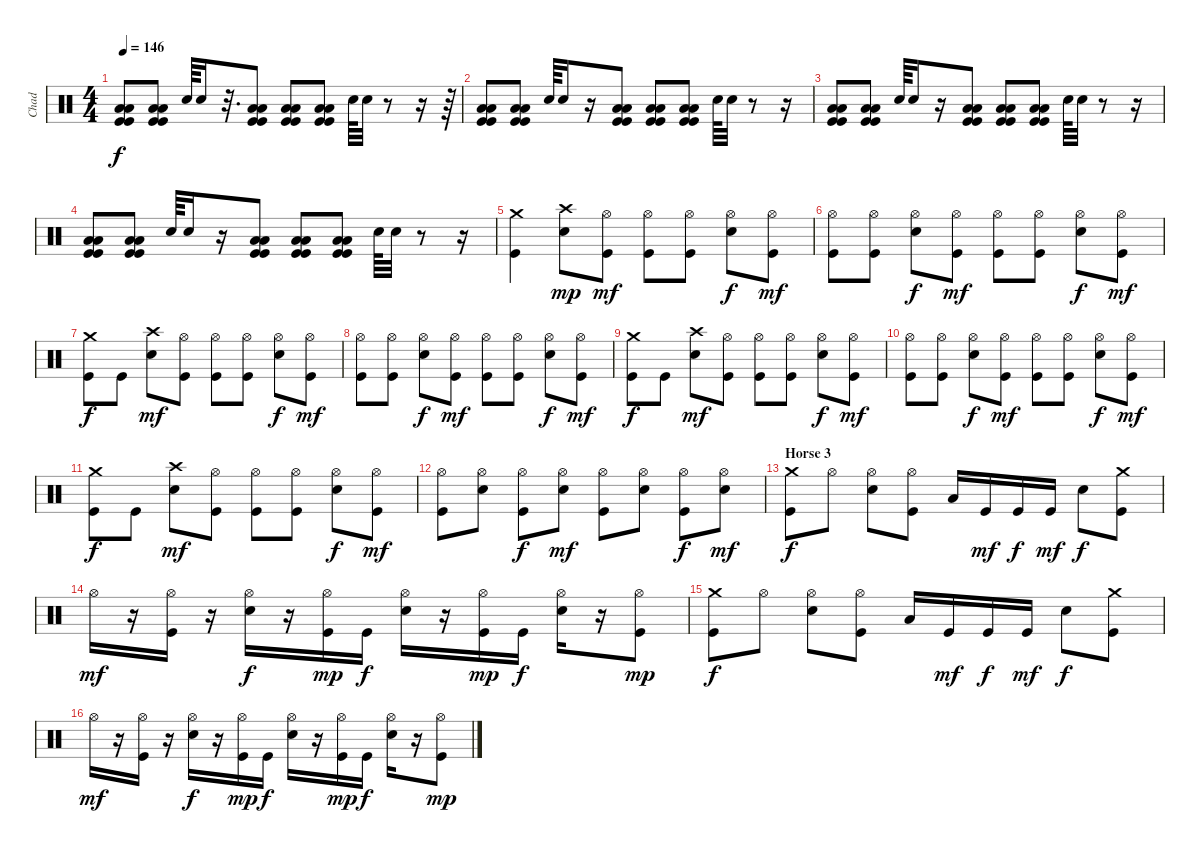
\track ("Chad" "Chad") {instrument percussion}
\staff {score}
\articulation defaults
\ts (4 4)
\tempo 146
\clef neutral
\ks c
("Low Tom (hit)" "Low Floor Tom (hit)" "Kick (hit)" "Kick (hit)").8{dy f} ("Low Tom (hit)" "Low Floor Tom (hit)" "Kick (hit)" "Kick (hit)").8 "Snare (hit) 2".64 "Snare (hit) 2".16 r.32{d} ("Low Tom (hit)" "Low Floor Tom (hit)" "Kick (hit)" "Kick (hit)").8 ("Low Tom (hit)" "Low Floor Tom (hit)" "Kick (hit)" "Kick (hit)").8 ("Low Tom (hit)" "Low Floor Tom (hit)" "Kick (hit)" "Kick (hit)").8 "Snare (hit) 2".64 "Snare (hit) 2".32 r.8 r.16 r.64 |
("Low Tom (hit)" "Low Floor Tom (hit)" "Kick (hit)" "Kick (hit)").8 ("Low Tom (hit)" "Low Floor Tom (hit)" "Kick (hit)" "Kick (hit)").8 "Snare (hit) 2".64 "Snare (hit) 2".16 r.16 ("Low Tom (hit)" "Low Floor Tom (hit)" "Kick (hit)" "Kick (hit)").8 ("Low Tom (hit)" "Low Floor Tom (hit)" "Kick (hit)" "Kick (hit)").8 ("Low Tom (hit)" "Low Floor Tom (hit)" "Kick (hit)" "Kick (hit)").8 "Snare (hit) 2".64 "Snare (hit) 2".32 r.8 r.16 |
("Low Tom (hit)" "Low Floor Tom (hit)" "Kick (hit)" "Kick (hit)").8 ("Low Tom (hit)" "Low Floor Tom (hit)" "Kick (hit)" "Kick (hit)").8 "Snare (hit) 2".64 "Snare (hit) 2".16 r.16 ("Low Tom (hit)" "Low Floor Tom (hit)" "Kick (hit)" "Kick (hit)").8 ("Low Tom (hit)" "Low Floor Tom (hit)" "Kick (hit)" "Kick (hit)").8 ("Low Tom (hit)" "Low Floor Tom (hit)" "Kick (hit)" "Kick (hit)").8 "Snare (hit) 2".64 "Snare (hit) 2".32 r.8 r.16 |
("Low Tom (hit)" "Low Floor Tom (hit)" "Kick (hit)" "Kick (hit)").8 ("Low Tom (hit)" "Low Floor Tom (hit)" "Kick (hit)" "Kick (hit)").8 "Snare (hit) 2".64 "Snare (hit) 2".16 r.16 ("Low Tom (hit)" "Low Floor Tom (hit)" "Kick (hit)" "Kick (hit)").8 ("Low Tom (hit)" "Low Floor Tom (hit)" "Kick (hit)" "Kick (hit)").8 ("Low Tom (hit)" "Low Floor Tom (hit)" "Kick (hit)" "Kick (hit)").8 "Snare (hit) 2".64 "Snare (hit) 2".32 r.8 r.16 |
("Crash medium (hit)" "Kick (hit)").4 ("Crash high (hit)" "Snare (hit) 2").8{dy mp} ("Hi-Hat (open)" "Kick (hit)").8{dy mf} ("Hi-Hat (open)" "Kick (hit)").8 ("Hi-Hat (open)" "Kick (hit)").8 ("Hi-Hat (open)" "Snare (hit) 2").8{dy f} ("Hi-Hat (open)" "Kick (hit)").8{dy mf} |
("Hi-Hat (open)" "Kick (hit)").8 ("Hi-Hat (open)" "Kick (hit)").8 ("Hi-Hat (open)" "Snare (hit) 2").8{dy f} ("Hi-Hat (open)" "Kick (hit)").8{dy mf} ("Hi-Hat (open)" "Kick (hit)").8 ("Hi-Hat (open)" "Kick (hit)").8 ("Hi-Hat (open)" "Snare (hit) 2").8{dy f} ("Hi-Hat (open)" "Kick (hit)").8{dy mf} |
("Crash medium (hit)" "Kick (hit)").8{dy f} "Kick (hit)".8 ("Crash high (hit)" "Snare (hit) 2").8{dy mf} ("Hi-Hat (open)" "Kick (hit)").8 ("Hi-Hat (open)" "Kick (hit)").8 ("Hi-Hat (open)" "Kick (hit)").8 ("Hi-Hat (open)" "Snare (hit) 2").8{dy f} ("Hi-Hat (open)" "Kick (hit)").8{dy mf} |
("Hi-Hat (open)" "Kick (hit)").8 ("Hi-Hat (open)" "Kick (hit)").8 ("Hi-Hat (open)" "Snare (hit) 2").8{dy f} ("Hi-Hat (open)" "Kick (hit)").8{dy mf} ("Hi-Hat (open)" "Kick (hit)").8 ("Hi-Hat (open)" "Kick (hit)").8 ("Hi-Hat (open)" "Snare (hit) 2").8{dy f} ("Hi-Hat (open)" "Kick (hit)").8{dy mf} |
("Crash medium (hit)" "Kick (hit)").8{dy f} "Kick (hit)".8 ("Crash high (hit)" "Snare (hit) 2").8{dy mf} ("Hi-Hat (open)" "Kick (hit)").8 ("Hi-Hat (open)" "Kick (hit)").8 ("Hi-Hat (open)" "Kick (hit)").8 ("Hi-Hat (open)" "Snare (hit) 2").8{dy f} ("Hi-Hat (open)" "Kick (hit)").8{dy mf} |
("Hi-Hat (open)" "Kick (hit)").8 ("Hi-Hat (open)" "Kick (hit)").8 ("Hi-Hat (open)" "Snare (hit) 2").8{dy f} ("Hi-Hat (open)" "Kick (hit)").8{dy mf} ("Hi-Hat (open)" "Kick (hit)").8 ("Hi-Hat (open)" "Kick (hit)").8 ("Hi-Hat (open)" "Snare (hit) 2").8{dy f} ("Hi-Hat (open)" "Kick (hit)").8{dy mf} |
("Crash medium (hit)" "Kick (hit)").8{dy f} "Kick (hit)".8 ("Crash high (hit)" "Snare (hit) 2").8{dy mf} ("Hi-Hat (open)" "Kick (hit)").8 ("Hi-Hat (open)" "Kick (hit)").8 ("Hi-Hat (open)" "Kick (hit)").8 ("Hi-Hat (open)" "Snare (hit) 2").8{dy f} ("Hi-Hat (open)" "Kick (hit)").8{dy mf} |
("Hi-Hat (open)" "Kick (hit)").8 ("Hi-Hat (open)" "Snare (hit) 2").8 ("Hi-Hat (open)" "Kick (hit)").8{dy f} ("Hi-Hat (open)" "Snare (hit) 2").8{dy mf} ("Hi-Hat (open)" "Kick (hit)").8 ("Hi-Hat (open)" "Snare (hit) 2").8 ("Hi-Hat (open)" "Kick (hit)").8{dy f} ("Hi-Hat (open)" "Snare (hit) 2").8{dy mf} |
\section ("" "Horse 3")
("Crash medium (hit)" "Kick (hit)").8{dy f} "Hi-Hat (open)".8 ("Hi-Hat (open)" "Snare (hit) 2").8 ("Hi-Hat (open)" "Kick (hit)").8 "Low Floor Tom (hit)".16 "Kick (hit)".16{dy mf} "Kick (hit)".16{dy f} "Kick (hit)".16{dy mf} "Snare (hit) 2".8{dy f} ("Crash medium (hit)" "Kick (hit)").8 |
"Hi-Hat (open)".16{dy mf} r.16 ("Hi-Hat (open)" "Kick (hit)").16 r.16 ("Hi-Hat (open)" "Snare (hit) 2").16{dy f} r.16 ("Hi-Hat (open)" "Kick (hit)").16{dy mp} "Kick (hit)".16{dy f} ("Hi-Hat (open)" "Snare (hit) 2").16 r.16 ("Hi-Hat (open)" "Kick (hit)").16{dy mp} "Kick (hit)".16{dy f} ("Hi-Hat (open)" "Snare (hit) 2").16 r.16 ("Hi-Hat (open)" "Kick (hit)").8{dy mp} |
("Crash medium (hit)" "Kick (hit)").8{dy f} "Hi-Hat (open)".8 ("Hi-Hat (open)" "Snare (hit) 2").8 ("Hi-Hat (open)" "Kick (hit)").8 "Low Floor Tom (hit)".16 "Kick (hit)".16{dy mf} "Kick (hit)".16{dy f} "Kick (hit)".16{dy mf} "Snare (hit) 2".8{dy f} ("Crash medium (hit)" "Kick (hit)").8 |
"Hi-Hat (open)".16{dy mf} r.16 ("Hi-Hat (open)" "Kick (hit)").16 r.16 ("Hi-Hat (open)" "Snare (hit) 2").16{dy f} r.16 ("Hi-Hat (open)" "Kick (hit)").16{dy mp} "Kick (hit)".16{dy f} ("Hi-Hat (open)" "Snare (hit) 2").16 r.16 ("Hi-Hat (open)" "Kick (hit)").16{dy mp} "Kick (hit)".16{dy f} ("Hi-Hat (open)" "Snare (hit) 2").16 r.16 ("Hi-Hat (open)" "Kick (hit)").8{dy mp}
